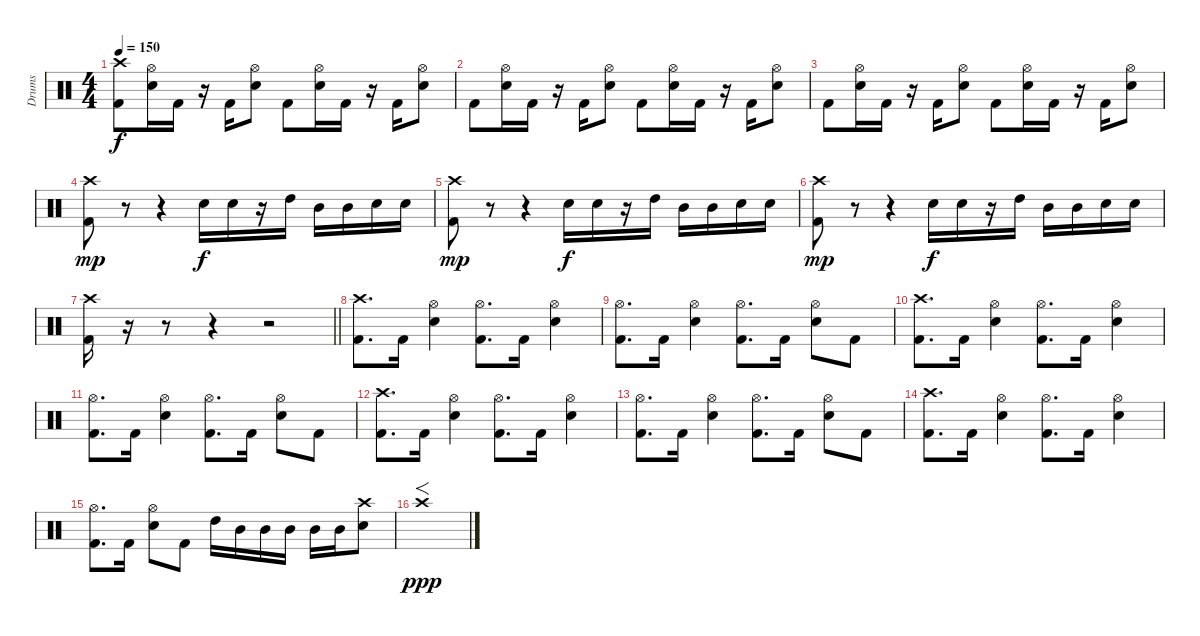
\track ("Drums" "Drums") {instrument percussion}
\staff {score}
\articulation defaults
\ts (4 4)
\tempo 150
\clef neutral
\ks c
("Crash high (hit)" "Kick (hit) 2").8{dy f} ("Hi-Hat (open)" "Electric Snare (hit)").16 "Kick (hit) 2".16 r.16 "Kick (hit) 2".16 ("Hi-Hat (open)" "Electric Snare (hit)").8 "Kick (hit) 2".8 ("Hi-Hat (open)" "Electric Snare (hit)").16 "Kick (hit) 2".16 r.16 "Kick (hit) 2".16 ("Hi-Hat (open)" "Electric Snare (hit)").8 |
"Kick (hit) 2".8 ("Hi-Hat (open)" "Electric Snare (hit)").16 "Kick (hit) 2".16 r.16 "Kick (hit) 2".16 ("Hi-Hat (open)" "Electric Snare (hit)").8 "Kick (hit) 2".8 ("Hi-Hat (open)" "Electric Snare (hit)").16 "Kick (hit) 2".16 r.16 "Kick (hit) 2".16 ("Hi-Hat (open)" "Electric Snare (hit)").8 |
"Kick (hit) 2".8 ("Hi-Hat (open)" "Electric Snare (hit)").16 "Kick (hit) 2".16 r.16 "Kick (hit) 2".16 ("Hi-Hat (open)" "Electric Snare (hit)").8 "Kick (hit) 2".8 ("Hi-Hat (open)" "Electric Snare (hit)").16 "Kick (hit) 2".16 r.16 "Kick (hit) 2".16 ("Hi-Hat (open)" "Electric Snare (hit)").8 |
("Crash high (hit)" "Kick (hit) 2").8{dy mp} r.8 r.4 "Electric Snare (hit)".16{dy f} "Electric Snare (hit)".16 r.16 "High Tom (hit)".16 "Mid Tom (hit)".16 "Mid Tom (hit)".16 "Electric Snare (hit)".16 "Electric Snare (hit)".16 |
("Crash high (hit)" "Kick (hit) 2").8{dy mp} r.8 r.4 "Electric Snare (hit)".16{dy f} "Electric Snare (hit)".16 r.16 "High Tom (hit)".16 "Mid Tom (hit)".16 "Mid Tom (hit)".16 "Electric Snare (hit)".16 "Electric Snare (hit)".16 |
("Crash high (hit)" "Kick (hit) 2").8{dy mp} r.8 r.4 "Electric Snare (hit)".16{dy f} "Electric Snare (hit)".16 r.16 "High Tom (hit)".16 "Mid Tom (hit)".16 "Mid Tom (hit)".16 "Electric Snare (hit)".16 "Electric Snare (hit)".16 |
\barLineRight lightlight
("Crash high (hit)" "Kick (hit) 2").16 r.16 r.8 r.4 r.2 |
("Crash high (hit)" "Kick (hit) 2").8{d} "Kick (hit) 2".16 ("Hi-Hat (open)" "Electric Snare (hit)").4 ("Hi-Hat (open)" "Kick (hit) 2").8{d} "Kick (hit) 2".16 ("Hi-Hat (open)" "Electric Snare (hit)").4 |
("Hi-Hat (open)" "Kick (hit) 2").8{d} "Kick (hit) 2".16 ("Hi-Hat (open)" "Electric Snare (hit)").4 ("Hi-Hat (open)" "Kick (hit) 2").8{d} "Kick (hit) 2".16 ("Hi-Hat (open)" "Electric Snare (hit)").8 "Kick (hit) 2".8 |
("Crash high (hit)" "Kick (hit) 2").8{d} "Kick (hit) 2".16 ("Hi-Hat (open)" "Electric Snare (hit)").4 ("Hi-Hat (open)" "Kick (hit) 2").8{d} "Kick (hit) 2".16 ("Hi-Hat (open)" "Electric Snare (hit)").4 |
("Hi-Hat (open)" "Kick (hit) 2").8{d} "Kick (hit) 2".16 ("Hi-Hat (open)" "Electric Snare (hit)").4 ("Hi-Hat (open)" "Kick (hit) 2").8{d} "Kick (hit) 2".16 ("Hi-Hat (open)" "Electric Snare (hit)").8 "Kick (hit) 2".8 |
("Crash high (hit)" "Kick (hit) 2").8{d} "Kick (hit) 2".16 ("Hi-Hat (open)" "Electric Snare (hit)").4 ("Hi-Hat (open)" "Kick (hit) 2").8{d} "Kick (hit) 2".16 ("Hi-Hat (open)" "Electric Snare (hit)").4 |
("Hi-Hat (open)" "Kick (hit) 2").8{d} "Kick (hit) 2".16 ("Hi-Hat (open)" "Electric Snare (hit)").4 ("Hi-Hat (open)" "Kick (hit) 2").8{d} "Kick (hit) 2".16 ("Hi-Hat (open)" "Electric Snare (hit)").8 "Kick (hit) 2".8 |
("Crash high (hit)" "Kick (hit) 2").8{d} "Kick (hit) 2".16 ("Hi-Hat (open)" "Electric Snare (hit)").4 ("Hi-Hat (open)" "Kick (hit) 2").8{d} "Kick (hit) 2".16 ("Hi-Hat (open)" "Electric Snare (hit)").4 |
("Hi-Hat (open)" "Kick (hit) 2").8{d} "Kick (hit) 2".16 ("Hi-Hat (open)" "Electric Snare (hit)").8 "Kick (hit) 2".8 "High Tom (hit)".16 "Mid Tom (hit)".16 "Mid Tom (hit)".16 "Mid Tom (hit)".16 "Mid Tom (hit)".16 "Mid Tom (hit)".16 ("Crash high (hit)" "Electric Snare (hit)").8 |
"Crash high (hit)".1{f dy ppp}
